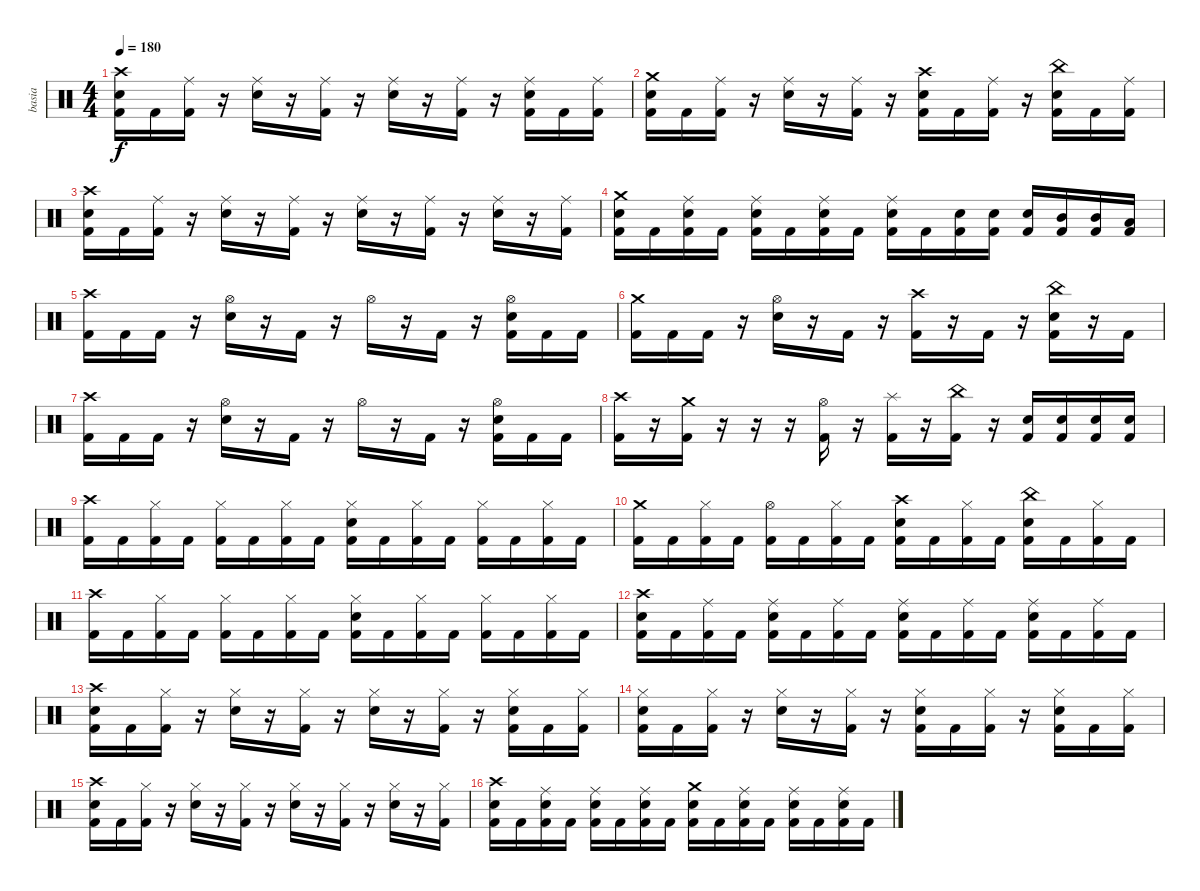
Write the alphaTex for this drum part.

\track ("basia" "basia") {instrument percussion}
\staff {score}
\articulation defaults
\ts (4 4)
\tempo 180
\clef neutral
\ks c
("Crash high (hit)" "Snare (hit) 2" "Kick (hit) 2").16{dy f} "Kick (hit) 2".16 ("Ride (middle)" "Kick (hit) 2").16 r.16 ("Ride (middle)" "Snare (hit) 2").16 r.16 ("Ride (middle)" "Kick (hit) 2").16 r.16 ("Ride (middle)" "Snare (hit) 2").16 r.16 ("Ride (middle)" "Kick (hit) 2").16 r.16 ("Ride (middle)" "Snare (hit) 2" "Kick (hit) 2").16 "Kick (hit) 2".16 ("Ride (middle)" "Kick (hit) 2").16 |
("Crash medium (hit)" "Snare (hit) 2" "Kick (hit) 2").16 "Kick (hit) 2".16 ("Ride (middle)" "Kick (hit) 2").16 r.16 ("Ride (middle)" "Snare (hit) 2").16 r.16 ("Ride (middle)" "Kick (hit) 2").16 r.16 ("Crash high (hit)" "Snare (hit) 2" "Kick (hit) 2").16 "Kick (hit) 2".16 ("Ride (middle)" "Kick (hit) 2").16 r.16 ("China (hit)" "Snare (hit) 2" "Kick (hit) 2").16 "Kick (hit) 2".16 ("Ride (middle)" "Kick (hit) 2").16 |
("Crash high (hit)" "Snare (hit) 2" "Kick (hit) 2").16 "Kick (hit) 2".16 ("Ride (middle)" "Kick (hit) 2").16 r.16 ("Ride (middle)" "Snare (hit) 2").16 r.16 ("Ride (middle)" "Kick (hit) 2").16 r.16 ("Ride (middle)" "Snare (hit) 2").16 r.16 ("Ride (middle)" "Kick (hit) 2").16 r.16 ("Ride (middle)" "Snare (hit) 2").16 r.16 ("Ride (middle)" "Kick (hit) 2").16 |
("Crash medium (hit)" "Snare (hit) 2" "Kick (hit) 2").16 "Kick (hit) 2".16 ("Ride (middle)" "Snare (hit) 2" "Kick (hit) 2").16 "Kick (hit) 2".16 ("Ride (middle)" "Snare (hit) 2" "Kick (hit) 2").16 "Kick (hit) 2".16 ("Ride (middle)" "Snare (hit) 2" "Kick (hit) 2").16 "Kick (hit) 2".16 ("Ride (middle)" "Snare (hit) 2" "Kick (hit) 2").16 "Kick (hit) 2".16 ("Snare (hit) 2" "Kick (hit) 2").16 ("Snare (hit) 2" "Kick (hit) 2").16 ("Snare (hit) 2" "Kick (hit) 2").16 ("Mid Tom (hit)" "Kick (hit) 2").16 ("Mid Tom (hit)" "Kick (hit) 2").16 ("Low Tom (hit)" "Kick (hit) 2").16 |
("Crash high (hit)" "Kick (hit) 2").16 "Kick (hit) 2".16 "Kick (hit) 2".16 r.16 ("Hi-Hat (open)" "Snare (hit) 2").16 r.16 "Kick (hit) 2".16 r.16 "Hi-Hat (open)".16 r.16 "Kick (hit) 2".16 r.16 ("Hi-Hat (open)" "Snare (hit) 2" "Kick (hit) 2").16 "Kick (hit) 2".16 "Kick (hit) 2".16 |
("Crash medium (hit)" "Kick (hit) 2").16 "Kick (hit) 2".16 "Kick (hit) 2".16 r.16 ("Hi-Hat (open)" "Snare (hit) 2").16 r.16 "Kick (hit) 2".16 r.16 ("Crash high (hit)" "Kick (hit) 2").16 r.16 "Kick (hit) 2".16 r.16 ("China (hit)" "Snare (hit) 2" "Kick (hit) 2").16 r.16 "Kick (hit) 2".16 |
("Crash high (hit)" "Kick (hit) 2").16 "Kick (hit) 2".16 "Kick (hit) 2".16 r.16 ("Hi-Hat (open)" "Snare (hit) 2").16 r.16 "Kick (hit) 2".16 r.16 "Hi-Hat (open)".16 r.16 "Kick (hit) 2".16 r.16 ("Hi-Hat (open)" "Snare (hit) 2" "Kick (hit) 2").16 "Kick (hit) 2".16 "Kick (hit) 2".16 |
("Crash high (hit)" "Kick (hit) 2").16 r.16 ("Crash medium (hit)" "Kick (hit) 2").16 r.16 r.16 r.16 ("Hi-Hat (open)" "Kick (hit) 2").16 r.16 ("Splash (hit)" "Kick (hit) 2").16 r.16 ("China (hit)" "Kick (hit) 2").16 r.16 ("Snare (hit) 2" "Kick (hit) 2").16 ("Snare (hit) 2" "Kick (hit) 2").16 ("Snare (hit) 2" "Kick (hit) 2").16 ("Snare (hit) 2" "Kick (hit) 2").16 |
("Crash high (hit)" "Kick (hit) 2").16 "Kick (hit) 2".16 ("Hi-Hat (closed)" "Kick (hit) 2").16 "Kick (hit) 2".16 ("Hi-Hat (closed)" "Kick (hit) 2").16 "Kick (hit) 2".16 ("Hi-Hat (closed)" "Kick (hit) 2").16 "Kick (hit) 2".16 ("Hi-Hat (closed)" "Snare (hit) 2" "Kick (hit) 2").16 "Kick (hit) 2".16 ("Hi-Hat (closed)" "Kick (hit) 2").16 "Kick (hit) 2".16 ("Hi-Hat (closed)" "Kick (hit) 2").16 "Kick (hit) 2".16 ("Hi-Hat (closed)" "Kick (hit) 2").16 "Kick (hit) 2".16 |
("Crash medium (hit)" "Kick (hit) 2").16 "Kick (hit) 2".16 ("Hi-Hat (closed)" "Kick (hit) 2").16 "Kick (hit) 2".16 ("Hi-Hat (open)" "Kick (hit) 2").16 "Kick (hit) 2".16 ("Hi-Hat (closed)" "Kick (hit) 2").16 "Kick (hit) 2".16 ("Crash high (hit)" "Snare (hit) 2" "Kick (hit) 2").16 "Kick (hit) 2".16 ("Hi-Hat (closed)" "Kick (hit) 2").16 "Kick (hit) 2".16 ("China (hit)" "Snare (hit) 2" "Kick (hit) 2").16 "Kick (hit) 2".16 ("Hi-Hat (closed)" "Kick (hit) 2").16 "Kick (hit) 2".16 |
("Crash high (hit)" "Kick (hit) 2").16 "Kick (hit) 2".16 ("Hi-Hat (closed)" "Kick (hit) 2").16 "Kick (hit) 2".16 ("Hi-Hat (closed)" "Kick (hit) 2").16 "Kick (hit) 2".16 ("Hi-Hat (closed)" "Kick (hit) 2").16 "Kick (hit) 2".16 ("Hi-Hat (closed)" "Snare (hit) 2" "Kick (hit) 2").16 "Kick (hit) 2".16 ("Hi-Hat (closed)" "Kick (hit) 2").16 "Kick (hit) 2".16 ("Hi-Hat (closed)" "Kick (hit) 2").16 "Kick (hit) 2".16 ("Hi-Hat (closed)" "Kick (hit) 2").16 "Kick (hit) 2".16 |
("Crash high (hit)" "Snare (hit) 2" "Kick (hit) 2").16 "Kick (hit) 2".16 ("Ride (middle)" "Kick (hit) 2").16 "Kick (hit) 2".16 ("Ride (middle)" "Snare (hit) 2" "Kick (hit) 2").16 "Kick (hit) 2".16 ("Ride (middle)" "Kick (hit) 2").16 "Kick (hit) 2".16 ("Ride (middle)" "Snare (hit) 2" "Kick (hit) 2").16 "Kick (hit) 2".16 ("Ride (middle)" "Kick (hit) 2").16 "Kick (hit) 2".16 ("Ride (middle)" "Snare (hit) 2" "Kick (hit) 2").16 "Kick (hit) 2".16 ("Ride (middle)" "Kick (hit) 2").16 "Kick (hit) 2".16 |
("Crash high (hit)" "Snare (hit) 2" "Kick (hit) 2").16 "Kick (hit) 2".16 ("Hi-Hat (closed)" "Kick (hit) 2").16 r.16 ("Hi-Hat (closed)" "Snare (hit) 2").16 r.16 ("Hi-Hat (closed)" "Kick (hit) 2").16 r.16 ("Hi-Hat (closed)" "Snare (hit) 2").16 r.16 ("Hi-Hat (closed)" "Kick (hit) 2").16 r.16 ("Hi-Hat (closed)" "Snare (hit) 2" "Kick (hit) 2").16 "Kick (hit) 2".16 ("Hi-Hat (closed)" "Kick (hit) 2").16 |
("Hi-Hat (closed)" "Snare (hit) 2" "Kick (hit) 2").16 "Kick (hit) 2".16 ("Hi-Hat (closed)" "Kick (hit) 2").16 r.16 ("Hi-Hat (closed)" "Snare (hit) 2").16 r.16 ("Hi-Hat (closed)" "Kick (hit) 2").16 r.16 ("Hi-Hat (closed)" "Snare (hit) 2" "Kick (hit) 2").16 "Kick (hit) 2".16 ("Hi-Hat (closed)" "Kick (hit) 2").16 r.16 ("Hi-Hat (closed)" "Snare (hit) 2" "Kick (hit) 2").16 "Kick (hit) 2".16 ("Hi-Hat (closed)" "Kick (hit) 2").16 |
("Crash high (hit)" "Snare (hit) 2" "Kick (hit) 2").16 "Kick (hit) 2".16 ("Hi-Hat (closed)" "Kick (hit) 2").16 r.16 ("Hi-Hat (closed)" "Snare (hit) 2").16 r.16 ("Hi-Hat (closed)" "Kick (hit) 2").16 r.16 ("Hi-Hat (closed)" "Snare (hit) 2").16 r.16 ("Hi-Hat (closed)" "Kick (hit) 2").16 r.16 ("Hi-Hat (closed)" "Snare (hit) 2").16 r.16 ("Hi-Hat (closed)" "Kick (hit) 2").16 |
("Crash high (hit)" "Snare (hit) 2" "Kick (hit) 2").16 "Kick (hit) 2".16 ("Ride (middle)" "Snare (hit) 2" "Kick (hit) 2").16 "Kick (hit) 2".16 ("Ride (middle)" "Snare (hit) 2" "Kick (hit) 2").16 "Kick (hit) 2".16 ("Ride (middle)" "Snare (hit) 2" "Kick (hit) 2").16 "Kick (hit) 2".16 ("Crash medium (hit)" "Snare (hit) 2" "Kick (hit) 2").16 "Kick (hit) 2".16 ("Ride (middle)" "Snare (hit) 2" "Kick (hit) 2").16 "Kick (hit) 2".16 ("Ride (middle)" "Snare (hit) 2" "Kick (hit) 2").16 "Kick (hit) 2".16 ("Ride (middle)" "Snare (hit) 2" "Kick (hit) 2").16 "Kick (hit) 2".16
